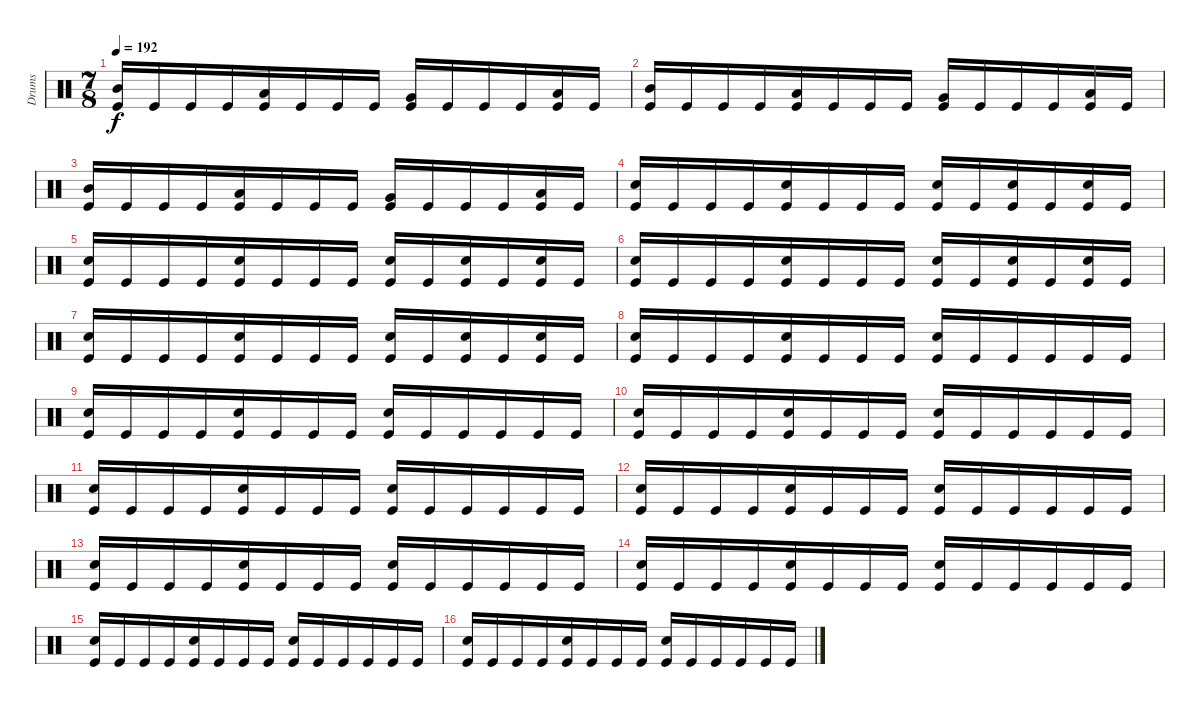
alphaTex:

\track ("Drums" "Drums") {instrument percussion}
\staff {score}
\articulation defaults
\ts (7 8)
\tempo 192
\clef neutral
\ks c
("Mid Tom (hit)" "Kick (hit)").16{dy f} "Kick (hit)".16 "Kick (hit)".16 "Kick (hit)".16 ("Low Tom (hit)" "Kick (hit)").16 "Kick (hit)".16 "Kick (hit)".16 "Kick (hit)".16 ("Very Low Tom (hit)" "Kick (hit)").16 "Kick (hit)".16 "Kick (hit)".16 "Kick (hit)".16 ("Low Floor Tom (hit)" "Kick (hit)").16 "Kick (hit)".16 |
("Mid Tom (hit)" "Kick (hit)").16 "Kick (hit)".16 "Kick (hit)".16 "Kick (hit)".16 ("Low Tom (hit)" "Kick (hit)").16 "Kick (hit)".16 "Kick (hit)".16 "Kick (hit)".16 ("Very Low Tom (hit)" "Kick (hit)").16 "Kick (hit)".16 "Kick (hit)".16 "Kick (hit)".16 ("Low Floor Tom (hit)" "Kick (hit)").16 "Kick (hit)".16 |
("Mid Tom (hit)" "Kick (hit)").16 "Kick (hit)".16 "Kick (hit)".16 "Kick (hit)".16 ("Low Tom (hit)" "Kick (hit)").16 "Kick (hit)".16 "Kick (hit)".16 "Kick (hit)".16 ("Very Low Tom (hit)" "Kick (hit)").16 "Kick (hit)".16 "Kick (hit)".16 "Kick (hit)".16 ("Low Floor Tom (hit)" "Kick (hit)").16 "Kick (hit)".16 |
("Snare (hit) 2" "Kick (hit)").16 "Kick (hit)".16 "Kick (hit)".16 "Kick (hit)".16 ("Snare (hit) 2" "Kick (hit)").16 "Kick (hit)".16 "Kick (hit)".16 "Kick (hit)".16 ("Snare (hit) 2" "Kick (hit)").16 "Kick (hit)".16 ("Snare (hit) 2" "Kick (hit)").16 "Kick (hit)".16 ("Snare (hit) 2" "Kick (hit)").16 "Kick (hit)".16 |
("Snare (hit) 2" "Kick (hit)").16 "Kick (hit)".16 "Kick (hit)".16 "Kick (hit)".16 ("Snare (hit) 2" "Kick (hit)").16 "Kick (hit)".16 "Kick (hit)".16 "Kick (hit)".16 ("Snare (hit) 2" "Kick (hit)").16 "Kick (hit)".16 ("Snare (hit) 2" "Kick (hit)").16 "Kick (hit)".16 ("Snare (hit) 2" "Kick (hit)").16 "Kick (hit)".16 |
("Snare (hit) 2" "Kick (hit)").16 "Kick (hit)".16 "Kick (hit)".16 "Kick (hit)".16 ("Snare (hit) 2" "Kick (hit)").16 "Kick (hit)".16 "Kick (hit)".16 "Kick (hit)".16 ("Snare (hit) 2" "Kick (hit)").16 "Kick (hit)".16 ("Snare (hit) 2" "Kick (hit)").16 "Kick (hit)".16 ("Snare (hit) 2" "Kick (hit)").16 "Kick (hit)".16 |
("Snare (hit) 2" "Kick (hit)").16 "Kick (hit)".16 "Kick (hit)".16 "Kick (hit)".16 ("Snare (hit) 2" "Kick (hit)").16 "Kick (hit)".16 "Kick (hit)".16 "Kick (hit)".16 ("Snare (hit) 2" "Kick (hit)").16 "Kick (hit)".16 ("Snare (hit) 2" "Kick (hit)").16 "Kick (hit)".16 ("Snare (hit) 2" "Kick (hit)").16 "Kick (hit)".16 |
("Snare (hit) 2" "Kick (hit)").16 "Kick (hit)".16 "Kick (hit)".16 "Kick (hit)".16 ("Snare (hit) 2" "Kick (hit)").16 "Kick (hit)".16 "Kick (hit)".16 "Kick (hit)".16 ("Snare (hit) 2" "Kick (hit)").16 "Kick (hit)".16 "Kick (hit)".16 "Kick (hit)".16 "Kick (hit)".16 "Kick (hit)".16 |
("Snare (hit) 2" "Kick (hit)").16 "Kick (hit)".16 "Kick (hit)".16 "Kick (hit)".16 ("Snare (hit) 2" "Kick (hit)").16 "Kick (hit)".16 "Kick (hit)".16 "Kick (hit)".16 ("Snare (hit) 2" "Kick (hit)").16 "Kick (hit)".16 "Kick (hit)".16 "Kick (hit)".16 "Kick (hit)".16 "Kick (hit)".16 |
("Snare (hit) 2" "Kick (hit)").16 "Kick (hit)".16 "Kick (hit)".16 "Kick (hit)".16 ("Snare (hit) 2" "Kick (hit)").16 "Kick (hit)".16 "Kick (hit)".16 "Kick (hit)".16 ("Snare (hit) 2" "Kick (hit)").16 "Kick (hit)".16 "Kick (hit)".16 "Kick (hit)".16 "Kick (hit)".16 "Kick (hit)".16 |
("Snare (hit) 2" "Kick (hit)").16 "Kick (hit)".16 "Kick (hit)".16 "Kick (hit)".16 ("Snare (hit) 2" "Kick (hit)").16 "Kick (hit)".16 "Kick (hit)".16 "Kick (hit)".16 ("Snare (hit) 2" "Kick (hit)").16 "Kick (hit)".16 "Kick (hit)".16 "Kick (hit)".16 "Kick (hit)".16 "Kick (hit)".16 |
("Snare (hit) 2" "Kick (hit)").16 "Kick (hit)".16 "Kick (hit)".16 "Kick (hit)".16 ("Snare (hit) 2" "Kick (hit)").16 "Kick (hit)".16 "Kick (hit)".16 "Kick (hit)".16 ("Snare (hit) 2" "Kick (hit)").16 "Kick (hit)".16 "Kick (hit)".16 "Kick (hit)".16 "Kick (hit)".16 "Kick (hit)".16 |
("Snare (hit) 2" "Kick (hit)").16 "Kick (hit)".16 "Kick (hit)".16 "Kick (hit)".16 ("Snare (hit) 2" "Kick (hit)").16 "Kick (hit)".16 "Kick (hit)".16 "Kick (hit)".16 ("Snare (hit) 2" "Kick (hit)").16 "Kick (hit)".16 "Kick (hit)".16 "Kick (hit)".16 "Kick (hit)".16 "Kick (hit)".16 |
("Snare (hit) 2" "Kick (hit)").16 "Kick (hit)".16 "Kick (hit)".16 "Kick (hit)".16 ("Snare (hit) 2" "Kick (hit)").16 "Kick (hit)".16 "Kick (hit)".16 "Kick (hit)".16 ("Snare (hit) 2" "Kick (hit)").16 "Kick (hit)".16 "Kick (hit)".16 "Kick (hit)".16 "Kick (hit)".16 "Kick (hit)".16 |
("Snare (hit) 2" "Kick (hit)").16 "Kick (hit)".16 "Kick (hit)".16 "Kick (hit)".16 ("Snare (hit) 2" "Kick (hit)").16 "Kick (hit)".16 "Kick (hit)".16 "Kick (hit)".16 ("Snare (hit) 2" "Kick (hit)").16 "Kick (hit)".16 "Kick (hit)".16 "Kick (hit)".16 "Kick (hit)".16 "Kick (hit)".16 |
("Snare (hit) 2" "Kick (hit)").16 "Kick (hit)".16 "Kick (hit)".16 "Kick (hit)".16 ("Snare (hit) 2" "Kick (hit)").16 "Kick (hit)".16 "Kick (hit)".16 "Kick (hit)".16 ("Snare (hit) 2" "Kick (hit)").16 "Kick (hit)".16 "Kick (hit)".16 "Kick (hit)".16 "Kick (hit)".16 "Kick (hit)".16
